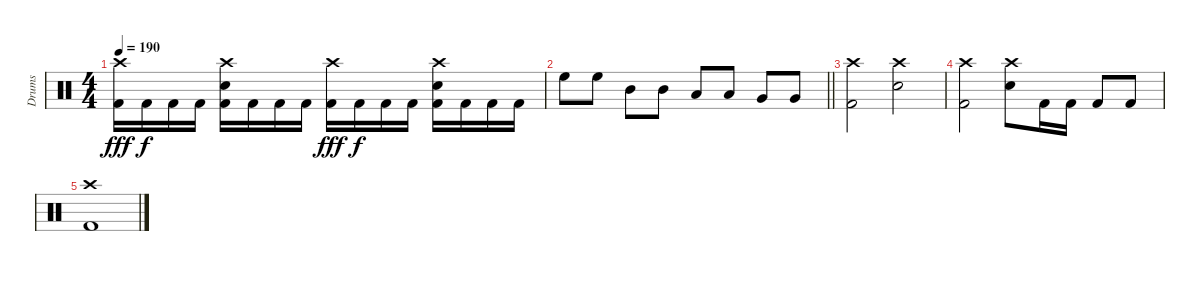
\track ("Drums" "Drums") {instrument percussion}
\staff {score}
\articulation defaults
\ts (4 4)
\tempo 190
\clef neutral
\ks c
("Crash high (hit)" "Kick (hit) 2").16{dy fff} "Kick (hit) 2".16{dy f} "Kick (hit) 2".16 "Kick (hit) 2".16 ("Crash high (hit)" "Electric Snare (hit)" "Kick (hit) 2").16 "Kick (hit) 2".16 "Kick (hit) 2".16 "Kick (hit) 2".16 ("Crash high (hit)" "Kick (hit) 2").16{dy fff} "Kick (hit) 2".16{dy f} "Kick (hit) 2".16 "Kick (hit) 2".16 ("Crash high (hit)" "Electric Snare (hit)" "Kick (hit) 2").16 "Kick (hit) 2".16 "Kick (hit) 2".16 "Kick (hit) 2".16 |
\barLineRight lightlight "High Floor Tom (hit)".8 "High Floor Tom (hit)".8 "Mid Tom (hit)".8 "Mid Tom (hit)".8 "Low Tom (hit)".8 "Low Tom (hit)".8 "Very Low Tom (hit)".8 "Very Low Tom (hit)".8
|
("Crash high (hit)" "Kick (hit) 2").2 ("Crash high (hit)" "Electric Snare (hit)").2 |
("Crash high (hit)" "Kick (hit) 2").2 ("Crash high (hit)" "Electric Snare (hit)").8 "Kick (hit) 2".16 "Kick (hit) 2".16 "Kick (hit) 2".8 "Kick (hit) 2".8 |
("Crash high (hit)" "Kick (hit) 2").1
